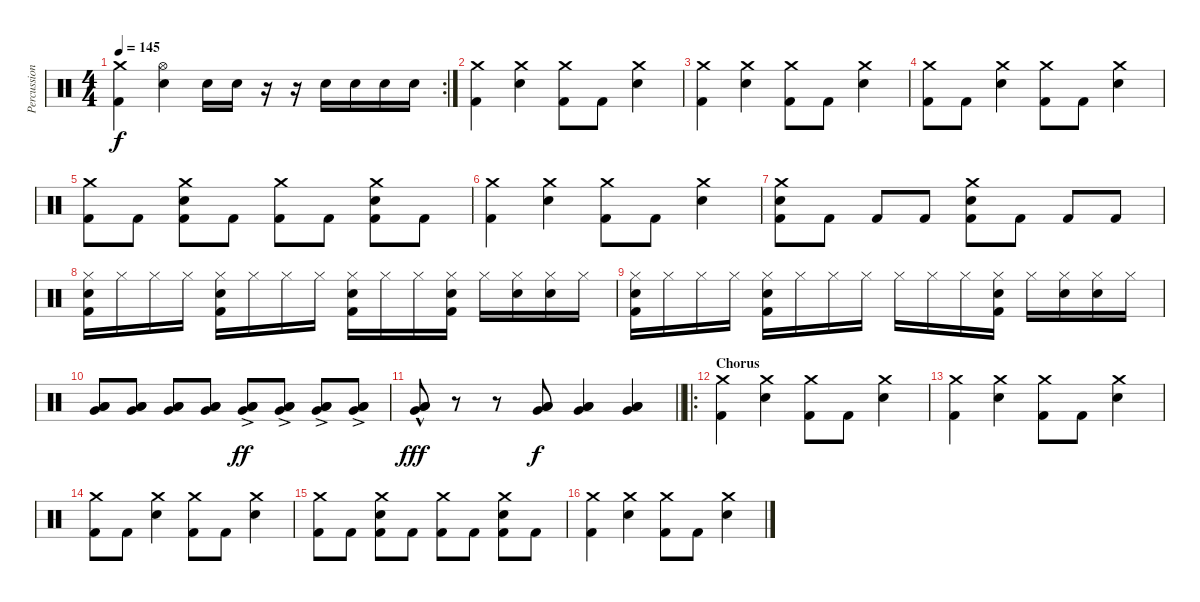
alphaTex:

\track ("Percussion" "Percussion") {instrument percussion}
\staff {score}
\articulation defaults
\rc 2
\ts (4 4)
\tempo 145
\clef neutral
\ks c
("Crash medium (hit)" "Kick (hit) 2").4{dy f} ("Hi-Hat (open)" "Snare (hit) 2").4 "Snare (hit) 2".16 "Snare (hit) 2".16 r.16 r.16 "Snare (hit) 2".16 "Snare (hit) 2".16 "Snare (hit) 2".16 "Snare (hit) 2".16 |
("Crash medium (hit)" "Kick (hit) 2").4 ("Crash medium (hit)" "Snare (hit) 2").4 ("Crash medium (hit)" "Kick (hit) 2").8 "Kick (hit) 2".8 ("Crash medium (hit)" "Snare (hit) 2").4 |
("Crash medium (hit)" "Kick (hit) 2").4 ("Crash medium (hit)" "Snare (hit) 2").4 ("Crash medium (hit)" "Kick (hit) 2").8 "Kick (hit) 2".8 ("Crash medium (hit)" "Snare (hit) 2").4 |
("Crash medium (hit)" "Kick (hit) 2").8 "Kick (hit) 2".8 ("Crash medium (hit)" "Snare (hit) 2").4 ("Crash medium (hit)" "Kick (hit) 2").8 "Kick (hit) 2".8 ("Crash medium (hit)" "Snare (hit) 2").4 |
("Crash medium (hit)" "Kick (hit) 2").8 "Kick (hit) 2".8 ("Crash medium (hit)" "Snare (hit) 2" "Kick (hit) 2").8 "Kick (hit) 2".8 ("Crash medium (hit)" "Kick (hit) 2").8 "Kick (hit) 2".8 ("Crash medium (hit)" "Snare (hit) 2" "Kick (hit) 2").8 "Kick (hit) 2".8 |
("Crash medium (hit)" "Kick (hit) 2").4 ("Crash medium (hit)" "Snare (hit) 2").4 ("Crash medium (hit)" "Kick (hit) 2").8 "Kick (hit) 2".8 ("Crash medium (hit)" "Snare (hit) 2").4 |
("Crash medium (hit)" "Snare (hit) 2" "Kick (hit) 2").8 "Kick (hit) 2".8 "Kick (hit) 2".8 "Kick (hit) 2".8 ("Crash medium (hit)" "Snare (hit) 2" "Kick (hit) 2").8 "Kick (hit) 2".8 "Kick (hit) 2".8 "Kick (hit) 2".8 |
("Hi-Hat (closed)" "Snare (hit) 2" "Kick (hit) 2").16 "Hi-Hat (closed)".16 "Hi-Hat (closed)".16 "Hi-Hat (closed)".16 ("Hi-Hat (closed)" "Snare (hit) 2" "Kick (hit) 2").16 "Hi-Hat (closed)".16 "Hi-Hat (closed)".16 "Hi-Hat (closed)".16 ("Hi-Hat (closed)" "Snare (hit) 2" "Kick (hit) 2").16 "Hi-Hat (closed)".16 "Hi-Hat (closed)".16 ("Hi-Hat (closed)" "Snare (hit) 2" "Kick (hit) 2").16 "Hi-Hat (closed)".16 ("Hi-Hat (closed)" "Snare (hit) 2").16 ("Hi-Hat (closed)" "Snare (hit) 2").16 "Hi-Hat (closed)".16 |
("Hi-Hat (closed)" "Snare (hit) 2" "Kick (hit) 2").16 "Hi-Hat (closed)".16 "Hi-Hat (closed)".16 "Hi-Hat (closed)".16 ("Hi-Hat (closed)" "Snare (hit) 2" "Kick (hit) 2").16 "Hi-Hat (closed)".16 "Hi-Hat (closed)".16 "Hi-Hat (closed)".16 "Hi-Hat (closed)".16 "Hi-Hat (closed)".16 "Hi-Hat (closed)".16 ("Hi-Hat (closed)" "Snare (hit) 2" "Kick (hit) 2").16 "Hi-Hat (closed)".16 ("Hi-Hat (closed)" "Snare (hit) 2").16 ("Hi-Hat (closed)" "Snare (hit) 2").16 "Hi-Hat (closed)".16 |
("Low Tom (hit)" "Low Floor Tom (hit)" "Very Low Tom (hit)").8 ("Low Tom (hit)" "Low Floor Tom (hit)" "Very Low Tom (hit)").8 ("Low Tom (hit)" "Low Floor Tom (hit)" "Very Low Tom (hit)").8 ("Low Tom (hit)" "Low Floor Tom (hit)" "Very Low Tom (hit)").8 ("Low Tom (hit)"{ac} "Low Floor Tom (hit)"{ac} "Very Low Tom (hit)"{ac}).8{dy ff} ("Low Tom (hit)"{ac} "Low Floor Tom (hit)"{ac} "Very Low Tom (hit)"{ac}).8 ("Low Tom (hit)"{ac} "Low Floor Tom (hit)"{ac} "Very Low Tom (hit)"{ac}).8 ("Low Tom (hit)"{ac} "Low Floor Tom (hit)"{ac} "Very Low Tom (hit)"{ac}).8 |
\barLineRight lightlight
("Low Tom (hit)"{hac} "Low Floor Tom (hit)"{hac} "Very Low Tom (hit)"{hac}).8{dy fff} r.8 r.8 ("Low Tom (hit)" "Low Floor Tom (hit)" "Very Low Tom (hit)").8{dy f} ("Low Tom (hit)" "Low Floor Tom (hit)" "Very Low Tom (hit)").4 ("Low Tom (hit)" "Low Floor Tom (hit)" "Very Low Tom (hit)").4 |
\ro
\section ("" "Chorus")
("Crash medium (hit)" "Kick (hit) 2").4 ("Crash medium (hit)" "Snare (hit) 2").4 ("Crash medium (hit)" "Kick (hit) 2").8 "Kick (hit) 2".8 ("Crash medium (hit)" "Snare (hit) 2").4 |
("Crash medium (hit)" "Kick (hit) 2").4 ("Crash medium (hit)" "Snare (hit) 2").4 ("Crash medium (hit)" "Kick (hit) 2").8 "Kick (hit) 2".8 ("Crash medium (hit)" "Snare (hit) 2").4 |
("Crash medium (hit)" "Kick (hit) 2").8 "Kick (hit) 2".8 ("Crash medium (hit)" "Snare (hit) 2").4 ("Crash medium (hit)" "Kick (hit) 2").8 "Kick (hit) 2".8 ("Crash medium (hit)" "Snare (hit) 2").4 |
("Crash medium (hit)" "Kick (hit) 2").8 "Kick (hit) 2".8 ("Crash medium (hit)" "Snare (hit) 2" "Kick (hit) 2").8 "Kick (hit) 2".8 ("Crash medium (hit)" "Kick (hit) 2").8 "Kick (hit) 2".8 ("Crash medium (hit)" "Snare (hit) 2" "Kick (hit) 2").8 "Kick (hit) 2".8 |
("Crash medium (hit)" "Kick (hit) 2").4 ("Crash medium (hit)" "Snare (hit) 2").4 ("Crash medium (hit)" "Kick (hit) 2").8 "Kick (hit) 2".8 ("Crash medium (hit)" "Snare (hit) 2").4
